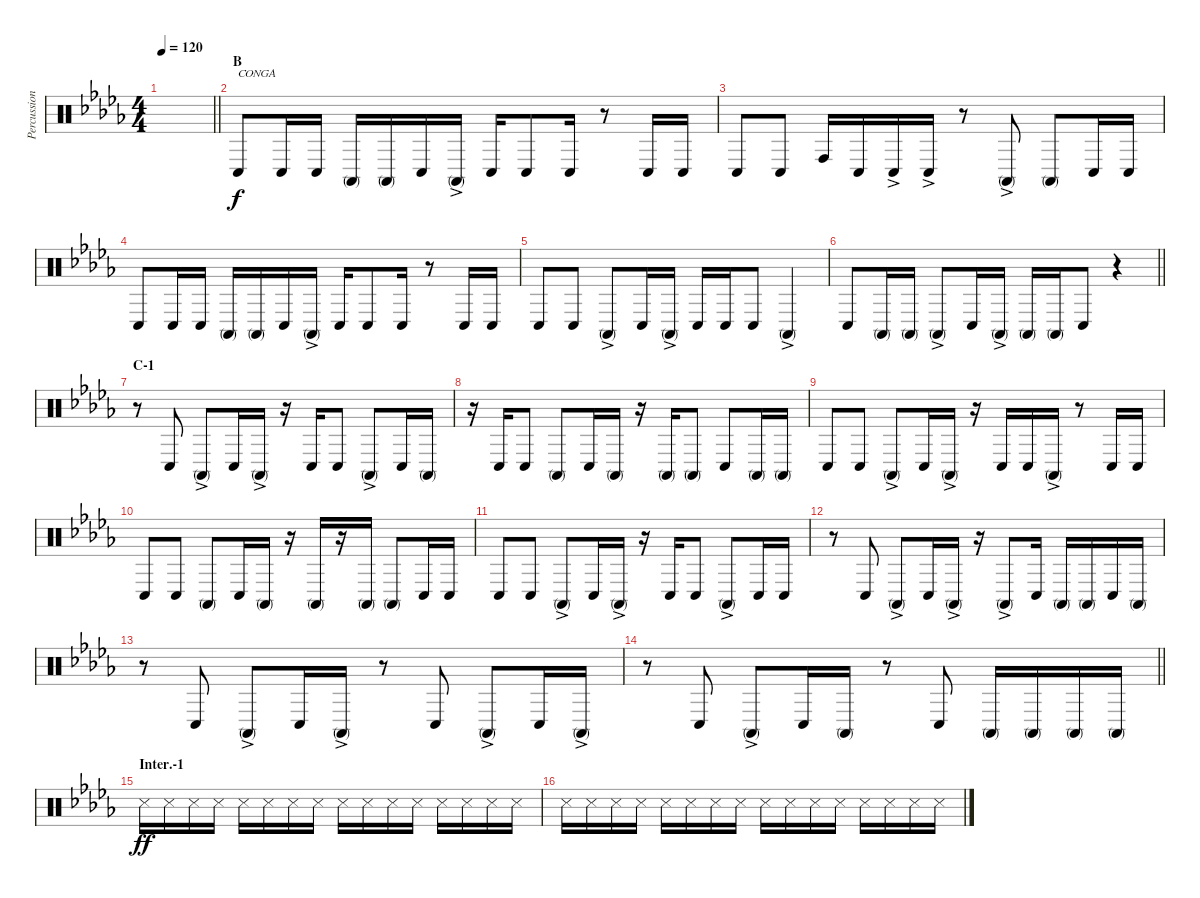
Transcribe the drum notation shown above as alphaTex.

\track ("Percussion A (Tainaka Ritsu)" "Percussion") {instrument percussion}
\staff {score}
\articulation defaults
\ts (4 4)
\tempo 120
\clef neutral
\barLineRight lightlight
\ks db
|
\section ("" "B")
"Conga low (hit)".8{txt "CONGA"} "Conga low (hit)".16 "Conga low (hit)".16 "Conga high (mute)".16 "Conga high (mute)".16 "Conga low (hit)".16 "Conga high (mute)"{ac}.16 "Conga low (hit)".16 "Conga low (hit)".8 "Conga low (hit)".16 r.8 "Conga low (hit)".16 "Conga low (hit)".16 |
"Conga low (hit)".8 "Conga low (hit)".8 "Conga high (hit)".16 "Conga low (hit)".16 "Conga low (hit)"{ac}.16 "Conga low (hit)"{ac}.16 r.8 "Conga high (mute)"{ac}.8 "Conga high (mute)".8 "Conga low (hit)".16 "Conga low (hit)".16 |
"Conga low (hit)".8 "Conga low (hit)".16 "Conga low (hit)".16 "Conga high (mute)".16 "Conga high (mute)".16 "Conga low (hit)".16 "Conga high (mute)"{ac}.16 "Conga low (hit)".16 "Conga low (hit)".8 "Conga low (hit)".16 r.8 "Conga low (hit)".16 "Conga low (hit)".16 |
"Conga low (hit)".8 "Conga low (hit)".8 "Conga high (mute)"{ac}.8 "Conga low (hit)".16 "Conga high (mute)"{ac}.16 "Conga low (hit)".16 "Conga low (hit)".16 "Conga low (hit)".8 "Conga high (mute)"{ac}.4 |
\barLineRight lightlight "Conga low (hit)".8 "Conga high (mute)".16 "Conga high (mute)".16 "Conga high (mute)"{ac}.8 "Conga low (hit)".16 "Conga high (mute)"{ac}.16 "Conga high (mute)".16 "Conga high (mute)".16 "Conga low (hit)".8
r.4 |
\section ("" "C-1")
r.8 "Conga low (hit)".8 "Conga high (mute)"{ac}.8 "Conga low (hit)".16 "Conga high (mute)"{ac}.16 r.16 "Conga low (hit)".16 "Conga low (hit)".8 "Conga high (mute)"{ac}.8 "Conga low (hit)".16 "Conga high (mute)".16 |
r.16 "Conga low (hit)".16 "Conga low (hit)".8 "Conga high (mute)".8 "Conga low (hit)".16 "Conga high (mute)".16 r.16 "Conga high (mute)".16 "Conga high (mute)".8 "Conga low (hit)".8 "Conga high (mute)".16 "Conga high (mute)".16 |
"Conga low (hit)".8 "Conga low (hit)".8 "Conga high (mute)"{ac}.8 "Conga low (hit)".16 "Conga high (mute)"{ac}.16 r.16 "Conga low (hit)".16 "Conga low (hit)".16 "Conga high (mute)"{ac}.16 r.8 "Conga low (hit)".16 "Conga low (hit)".16 |
"Conga low (hit)".8 "Conga low (hit)".8 "Conga high (mute)".8 "Conga low (hit)".16 "Conga high (mute)".16 r.16 "Conga high (mute)".16 r.16 "Conga high (mute)".16 "Conga high (mute)".8 "Conga low (hit)".16 "Conga low (hit)".16 |
"Conga low (hit)".8 "Conga low (hit)".8 "Conga high (mute)"{ac}.8 "Conga low (hit)".16 "Conga high (mute)"{ac}.16 r.16 "Conga low (hit)".16 "Conga low (hit)".8 "Conga high (mute)"{ac}.8 "Conga low (hit)".16 "Conga low (hit)".16 |
r.8 "Conga low (hit)".8 "Conga high (mute)"{ac}.8 "Conga low (hit)".16 "Conga high (mute)"{ac}.16 r.16 "Conga high (mute)"{ac}.8 "Conga low (hit)".16 "Conga high (mute)".16 "Conga high (mute)".16 "Conga low (hit)".16 "Conga high (mute)".16 |
r.8 "Conga low (hit)".8 "Conga high (mute)"{ac}.8 "Conga low (hit)".16 "Conga high (mute)"{ac}.16 r.8 "Conga low (hit)".8 "Conga high (mute)"{ac}.8 "Conga low (hit)".16 "Conga high (mute)"{ac}.16 |
\barLineRight lightlight
r.8 "Conga low (hit)".8 "Conga high (mute)"{ac}.8 "Conga low (hit)".16 "Conga high (mute)".16{dy f} r.8 "Conga low (hit)".8 "Conga high (mute)".16 "Conga high (mute)".16 "Conga high (mute)".16 "Conga high (mute)".16 |
\section ("" "Inter.-1")
"Snare (side stick) 3".16{dy ff} "Snare (side stick) 3".16 "Snare (side stick) 3".16 "Snare (side stick) 3".16 "Snare (side stick) 3".16 "Snare (side stick) 3".16 "Snare (side stick) 3".16 "Snare (side stick) 3".16 "Snare (side stick) 3".16 "Snare (side stick) 3".16 "Snare (side stick) 3".16 "Snare (side stick) 3".16 "Snare (side stick) 3".16 "Snare (side stick) 3".16 "Snare (side stick) 3".16 "Snare (side stick) 3".16 |
"Snare (side stick) 3".16 "Snare (side stick) 3".16 "Snare (side stick) 3".16 "Snare (side stick) 3".16 "Snare (side stick) 3".16 "Snare (side stick) 3".16 "Snare (side stick) 3".16 "Snare (side stick) 3".16 "Snare (side stick) 3".16 "Snare (side stick) 3".16 "Snare (side stick) 3".16 "Snare (side stick) 3".16 "Snare (side stick) 3".16 "Snare (side stick) 3".16 "Snare (side stick) 3".16 "Snare (side stick) 3".16
